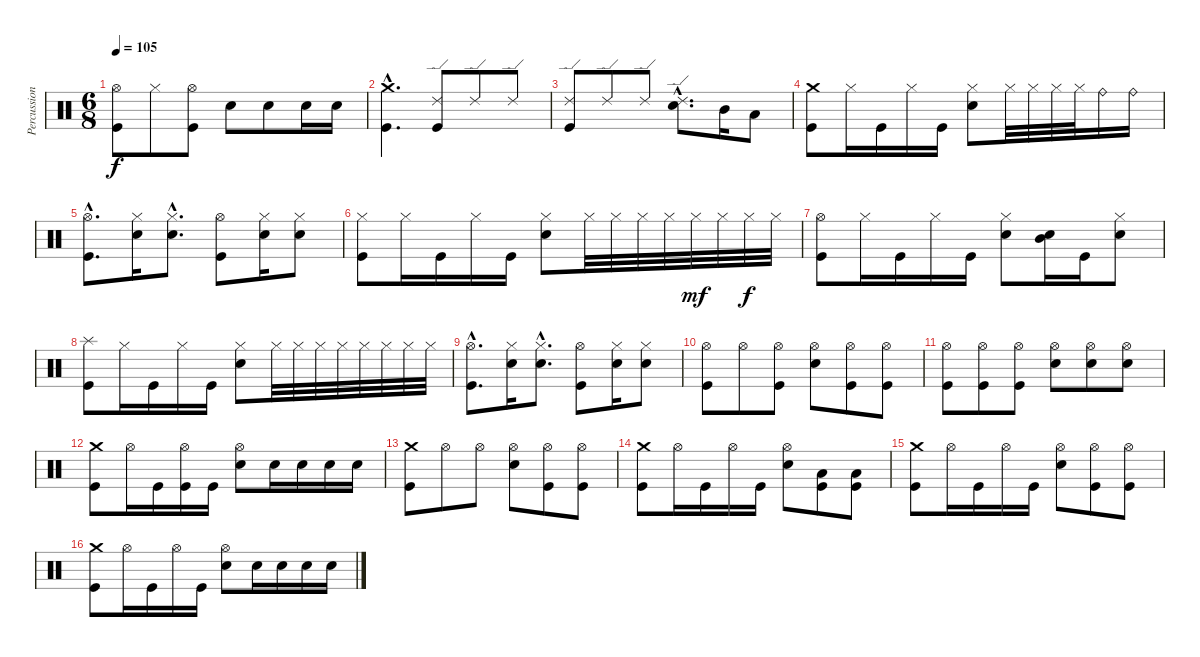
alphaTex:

\track ("Percussion" "Percussion") {instrument percussion}
\staff {score}
\articulation defaults
\ts (6 8)
\tempo 105
\clef neutral
\ks c
("Hi-Hat (open)" "Kick (hit)").8{dy f} "Hi-Hat (closed)".8 ("Hi-Hat (open)" "Kick (hit)").8 "Electric Snare (hit)".8 "Electric Snare (hit)".8 "Electric Snare (hit)".16 "Electric Snare (hit)".16 |
("Crash medium (hit)"{hac} "Kick (hit)"{hac}).4{d} ("Ride (edge) 2" "Kick (hit)").8 "Ride (edge) 2".8 "Ride (edge) 2".8 |
("Ride (edge) 2" "Kick (hit)").8 "Ride (edge) 2".8 "Ride (edge) 2".8 ("Ride (edge) 2"{hac} "Electric Snare (hit)"{hac}).8{d} "Mid Tom (hit)".16 "Low Tom (hit)".8 |
("Crash medium (hit)" "Kick (hit)").8 "Hi-Hat (closed)".16 "Kick (hit)".16 "Hi-Hat (closed)".16 "Kick (hit)".16 ("Hi-Hat (closed)" "Electric Snare (hit)").8 "Hi-Hat (closed)".32 "Hi-Hat (closed)".32 "Hi-Hat (closed)".32 "Hi-Hat (closed)".32 "Ride (bell)".16 "Ride (bell)".16 |
("Hi-Hat (open)"{hac} "Kick (hit)"{hac}).8{d} ("Hi-Hat (closed)" "Electric Snare (hit)").16 ("Hi-Hat (closed)"{hac} "Electric Snare (hit)"{hac}).8{d} ("Hi-Hat (open)" "Kick (hit)").8 ("Hi-Hat (closed)" "Electric Snare (hit)").16 ("Hi-Hat (closed)" "Electric Snare (hit)").8 |
("Hi-Hat (closed)" "Kick (hit)").8 "Hi-Hat (closed)".16 "Kick (hit)".16 "Hi-Hat (closed)".16 "Kick (hit)".16 ("Hi-Hat (closed)" "Electric Snare (hit)").8 "Hi-Hat (closed)".32 "Hi-Hat (closed)".32 "Hi-Hat (closed)".32 "Hi-Hat (closed)".32 "Hi-Hat (closed)".32{dy mf} "Hi-Hat (closed)".32 "Hi-Hat (closed)".32{dy f} "Hi-Hat (closed)".32 |
("Hi-Hat (open)" "Kick (hit)").8 "Hi-Hat (closed)".16 "Kick (hit)".16 "Hi-Hat (closed)".16 "Kick (hit)".16 ("Hi-Hat (closed)" "Electric Snare (hit)").8 ("Electric Snare (hit)" "Mid Tom (hit)").16 "Kick (hit)".16 ("Hi-Hat (closed)" "Electric Snare (hit)").8 |
("Splash (hit)" "Kick (hit)").8 "Hi-Hat (closed)".16 "Kick (hit)".16 "Hi-Hat (closed)".16 "Kick (hit)".16 ("Hi-Hat (closed)" "Electric Snare (hit)").8 "Hi-Hat (closed)".32 "Hi-Hat (closed)".32 "Hi-Hat (closed)".32 "Hi-Hat (closed)".32 "Hi-Hat (closed)".32 "Hi-Hat (closed)".32 "Hi-Hat (closed)".32 "Hi-Hat (closed)".32 |
("Hi-Hat (open)"{hac} "Kick (hit)"{hac}).8{d} ("Hi-Hat (closed)" "Electric Snare (hit)").16 ("Hi-Hat (closed)"{hac} "Electric Snare (hit)"{hac}).8{d} ("Hi-Hat (open)" "Kick (hit)").8 ("Hi-Hat (closed)" "Electric Snare (hit)").16 ("Hi-Hat (closed)" "Electric Snare (hit)").8 |
("Hi-Hat (open)" "Kick (hit)").8 "Hi-Hat (open)".8 ("Hi-Hat (open)" "Kick (hit)").8 ("Hi-Hat (open)" "Electric Snare (hit)").8 ("Hi-Hat (open)" "Kick (hit)").8 ("Hi-Hat (open)" "Kick (hit)").8 |
("Hi-Hat (open)" "Kick (hit)").8 ("Hi-Hat (open)" "Kick (hit)").8 ("Hi-Hat (open)" "Kick (hit)").8 ("Hi-Hat (open)" "Electric Snare (hit)").8 ("Hi-Hat (open)" "Electric Snare (hit)").8 ("Hi-Hat (open)" "Electric Snare (hit)").8 |
("Crash medium (hit)" "Kick (hit)").8 "Hi-Hat (open)".16 "Kick (hit)".16 ("Hi-Hat (open)" "Kick (hit)").16 "Kick (hit)".16 ("Hi-Hat (open)" "Electric Snare (hit)").8 "Electric Snare (hit)".16 "Electric Snare (hit)".16 "Electric Snare (hit)".16 "Electric Snare (hit)".16 |
("Crash medium (hit)" "Kick (hit)").8 "Hi-Hat (open)".8 "Hi-Hat (open)".8 ("Hi-Hat (open)" "Electric Snare (hit)").8 ("Hi-Hat (open)" "Kick (hit)").8 ("Hi-Hat (open)" "Kick (hit)").8 |
("Crash medium (hit)" "Kick (hit)").8 "Hi-Hat (open)".16 "Kick (hit)".16 "Hi-Hat (open)".16 "Kick (hit)".16 ("Hi-Hat (open)" "Electric Snare (hit)").8 ("Low Floor Tom (hit)" "Kick (hit)").8 ("Low Floor Tom (hit)" "Kick (hit)").8 |
("Crash medium (hit)" "Kick (hit)").8 "Hi-Hat (open)".16 "Kick (hit)".16 "Hi-Hat (open)".16 "Kick (hit)".16 ("Hi-Hat (open)" "Electric Snare (hit)").8 ("Hi-Hat (open)" "Kick (hit)").8 ("Hi-Hat (open)" "Kick (hit)").8 |
("Crash medium (hit)" "Kick (hit)").8 "Hi-Hat (open)".16 "Kick (hit)".16 "Hi-Hat (open)".16 "Kick (hit)".16 ("Hi-Hat (open)" "Electric Snare (hit)").8 "Electric Snare (hit)".16 "Electric Snare (hit)".16 "Electric Snare (hit)".16 "Electric Snare (hit)".16
